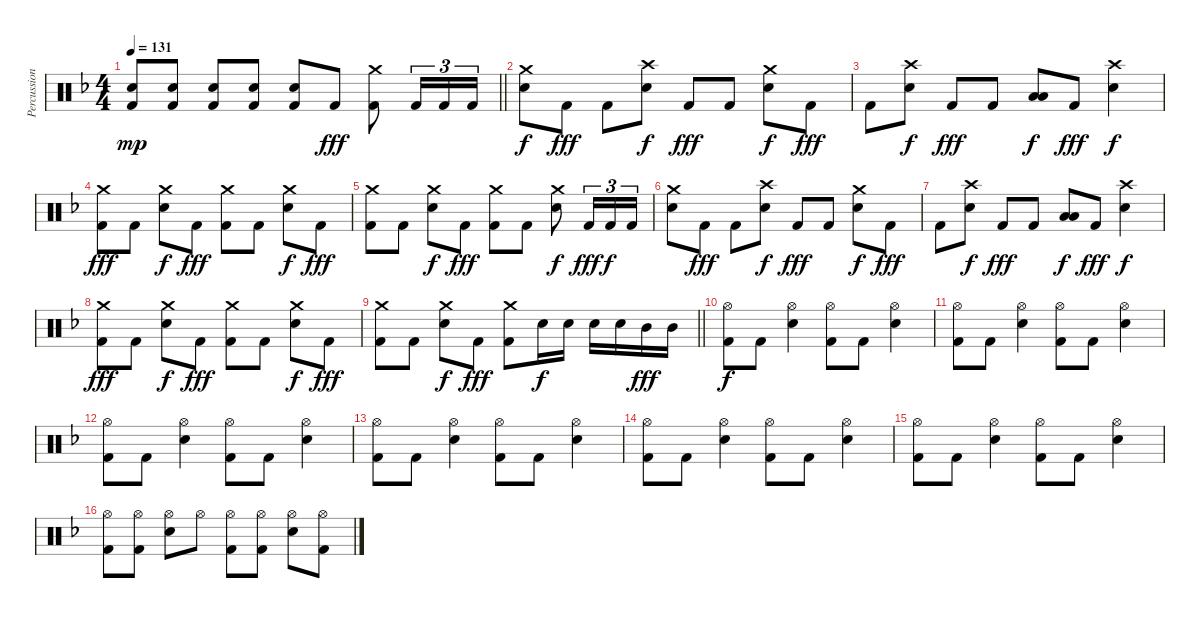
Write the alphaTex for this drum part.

\track ("Percussion" "Percussion") {instrument percussion}
\staff {score}
\articulation defaults
\ts (4 4)
\tempo 131
\clef neutral
\barLineRight lightlight
\ks f
("Electric Snare (hit)" "Kick (hit) 2").8{dy mp} ("Electric Snare (hit)" "Kick (hit) 2").8 ("Electric Snare (hit)" "Kick (hit) 2").8 ("Electric Snare (hit)" "Kick (hit) 2").8 ("Electric Snare (hit)" "Kick (hit) 2").8 "Kick (hit) 2".8{dy fff} ("Crash medium (hit)" "Kick (hit) 2").8 "Kick (hit) 2".16{tu (3 2)} "Kick (hit) 2".16{tu (3 2)} "Kick (hit) 2".16{tu (3 2)} |
("Crash medium (hit)" "Electric Snare (hit)").8{dy f} "Kick (hit) 2".8{dy fff} "Kick (hit) 2".8 ("Crash high (hit)" "Electric Snare (hit)").8{dy f} "Kick (hit) 2".8{dy fff} "Kick (hit) 2".8 ("Crash medium (hit)" "Electric Snare (hit)").8{dy f} "Kick (hit) 2".8{dy fff} |
"Kick (hit) 2".8 ("Crash high (hit)" "Electric Snare (hit)").8{dy f} "Kick (hit) 2".8{dy fff} "Kick (hit) 2".8 ("Low Floor Tom (hit)" "Low Tom (hit)").8{dy f} "Kick (hit) 2".8{dy fff} ("Crash high (hit)" "Electric Snare (hit)").4{dy f} |
("Crash medium (hit)" "Kick (hit) 2").8{dy fff} "Kick (hit) 2".8 ("Crash medium (hit)" "Electric Snare (hit)").8{dy f} "Kick (hit) 2".8{dy fff} ("Crash medium (hit)" "Kick (hit) 2").8 "Kick (hit) 2".8 ("Crash medium (hit)" "Electric Snare (hit)").8{dy f} "Kick (hit) 2".8{dy fff} |
("Crash medium (hit)" "Kick (hit) 2").8 "Kick (hit) 2".8 ("Crash medium (hit)" "Electric Snare (hit)").8{dy f} "Kick (hit) 2".8{dy fff} ("Crash medium (hit)" "Kick (hit) 2").8 "Kick (hit) 2".8 ("Crash medium (hit)" "Electric Snare (hit)").8{dy f} "Kick (hit) 2".16{tu (3 2) dy fff} "Kick (hit) 2".16{tu (3 2) dy f} "Kick (hit) 2".16{tu (3 2)} |
("Crash medium (hit)" "Electric Snare (hit)").8 "Kick (hit) 2".8{dy fff} "Kick (hit) 2".8 ("Crash high (hit)" "Electric Snare (hit)").8{dy f} "Kick (hit) 2".8{dy fff} "Kick (hit) 2".8 ("Crash medium (hit)" "Electric Snare (hit)").8{dy f} "Kick (hit) 2".8{dy fff} |
"Kick (hit) 2".8 ("Crash high (hit)" "Electric Snare (hit)").8{dy f} "Kick (hit) 2".8{dy fff} "Kick (hit) 2".8 ("Low Floor Tom (hit)" "Low Tom (hit)").8{dy f} "Kick (hit) 2".8{dy fff} ("Crash high (hit)" "Electric Snare (hit)").4{dy f} |
("Crash medium (hit)" "Kick (hit) 2").8{dy fff} "Kick (hit) 2".8 ("Crash medium (hit)" "Electric Snare (hit)").8{dy f} "Kick (hit) 2".8{dy fff} ("Crash medium (hit)" "Kick (hit) 2").8 "Kick (hit) 2".8 ("Crash medium (hit)" "Electric Snare (hit)").8{dy f} "Kick (hit) 2".8{dy fff} |
\barLineRight lightlight
("Crash medium (hit)" "Kick (hit) 2").8 "Kick (hit) 2".8 ("Crash medium (hit)" "Electric Snare (hit)").8{dy f} "Kick (hit) 2".8{dy fff} ("Crash medium (hit)" "Kick (hit) 2").8 "Electric Snare (hit)".16{dy f} "Electric Snare (hit)".16 "Electric Snare (hit)".16 "Electric Snare (hit)".16 "Mid Tom (hit)".16{dy fff} "Mid Tom (hit)".16 |
("Hi-Hat (open)" "Kick (hit) 2").8{dy f} "Kick (hit) 2".8 ("Hi-Hat (open)" "Electric Snare (hit)").4 ("Hi-Hat (open)" "Kick (hit) 2").8 "Kick (hit) 2".8 ("Hi-Hat (open)" "Electric Snare (hit)").4 |
("Hi-Hat (open)" "Kick (hit) 2").8 "Kick (hit) 2".8 ("Hi-Hat (open)" "Electric Snare (hit)").4 ("Hi-Hat (open)" "Kick (hit) 2").8 "Kick (hit) 2".8 ("Hi-Hat (open)" "Electric Snare (hit)").4 |
("Hi-Hat (open)" "Kick (hit) 2").8 "Kick (hit) 2".8 ("Hi-Hat (open)" "Electric Snare (hit)").4 ("Hi-Hat (open)" "Kick (hit) 2").8 "Kick (hit) 2".8 ("Hi-Hat (open)" "Electric Snare (hit)").4 |
("Hi-Hat (open)" "Kick (hit) 2").8 "Kick (hit) 2".8 ("Hi-Hat (open)" "Electric Snare (hit)").4 ("Hi-Hat (open)" "Kick (hit) 2").8 "Kick (hit) 2".8 ("Hi-Hat (open)" "Electric Snare (hit)").4 |
("Hi-Hat (open)" "Kick (hit) 2").8 "Kick (hit) 2".8 ("Hi-Hat (open)" "Electric Snare (hit)").4 ("Hi-Hat (open)" "Kick (hit) 2").8 "Kick (hit) 2".8 ("Hi-Hat (open)" "Electric Snare (hit)").4 |
("Hi-Hat (open)" "Kick (hit) 2").8 "Kick (hit) 2".8 ("Hi-Hat (open)" "Electric Snare (hit)").4 ("Hi-Hat (open)" "Kick (hit) 2").8 "Kick (hit) 2".8 ("Hi-Hat (open)" "Electric Snare (hit)").4 |
("Hi-Hat (open)" "Kick (hit) 2").8 ("Hi-Hat (open)" "Kick (hit) 2").8 ("Hi-Hat (open)" "Electric Snare (hit)").8 "Hi-Hat (open)".8 ("Hi-Hat (open)" "Kick (hit) 2").8 ("Hi-Hat (open)" "Kick (hit) 2").8 ("Hi-Hat (open)" "Electric Snare (hit)").8 ("Hi-Hat (open)" "Kick (hit) 2").8
